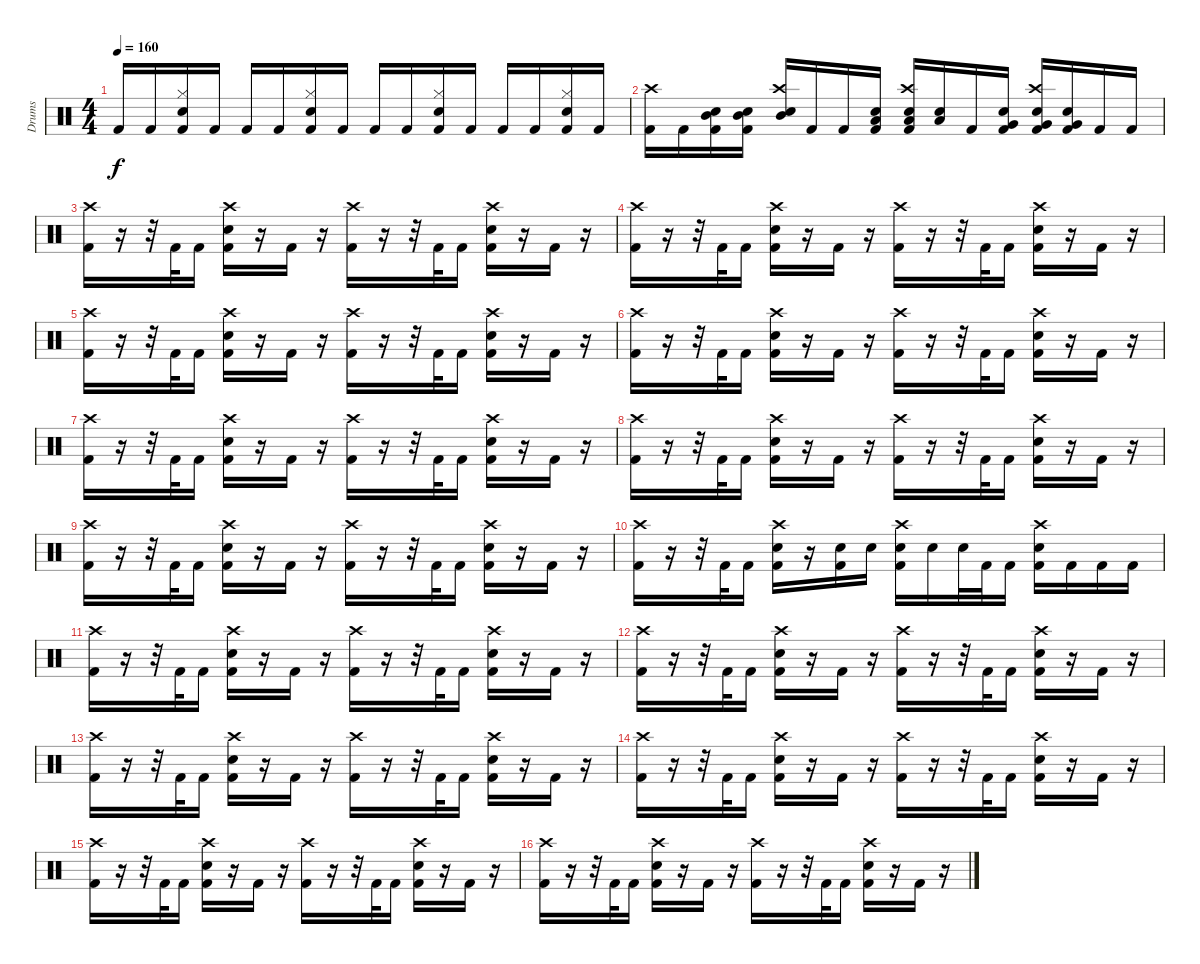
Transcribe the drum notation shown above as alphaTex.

\track ("Drums" "Drums") {instrument percussion}
\staff {score}
\articulation defaults
\ts (4 4)
\tempo 160
\clef neutral
\ks c "Kick (hit) 2".16{dy f} "Kick (hit) 2".16
("Hi-Hat (closed)" "Electric Snare (hit)" "Kick (hit) 2").16 "Kick (hit) 2".16 "Kick (hit) 2".16 "Kick (hit) 2".16 ("Hi-Hat (closed)" "Electric Snare (hit)" "Kick (hit) 2").16 "Kick (hit) 2".16 "Kick (hit) 2".16 "Kick (hit) 2".16 ("Hi-Hat (closed)" "Electric Snare (hit)" "Kick (hit) 2").16 "Kick (hit) 2".16 "Kick (hit) 2".16 "Kick (hit) 2".16 ("Hi-Hat (closed)" "Electric Snare (hit)" "Kick (hit) 2").16 "Kick (hit) 2".16 |
("Crash high (hit)" "Kick (hit) 2").16 "Kick (hit) 2".16 ("Electric Snare (hit)" "Kick (hit) 2" "Mid Tom (hit)").16 ("Electric Snare (hit)" "Kick (hit) 2" "Mid Tom (hit)").16 ("Crash high (hit)" "Electric Snare (hit)" "Mid Tom (hit)").16 "Kick (hit) 2".16 "Kick (hit) 2".16 ("Electric Snare (hit)" "Kick (hit) 2" "Low Tom (hit)").16 ("Crash high (hit)" "Electric Snare (hit)" "Kick (hit) 2" "Low Tom (hit)").16 ("Electric Snare (hit)" "Low Tom (hit)").16 "Kick (hit) 2".16 ("Electric Snare (hit)" "Kick (hit) 2" "Very Low Tom (hit)").16 ("Crash high (hit)" "Electric Snare (hit)" "Kick (hit) 2" "Very Low Tom (hit)").16 ("Electric Snare (hit)" "Kick (hit) 2" "Very Low Tom (hit)").16 "Kick (hit) 2".16 "Kick (hit) 2".16 |
("Crash high (hit)" "Kick (hit) 2").16 r.16 r.32 "Kick (hit) 2".32 "Kick (hit) 2".16 ("Crash high (hit)" "Electric Snare (hit)" "Kick (hit) 2").16 r.16 "Kick (hit) 2".16 r.16 ("Crash high (hit)" "Kick (hit) 2").16 r.16 r.32 "Kick (hit) 2".32 "Kick (hit) 2".16 ("Crash high (hit)" "Electric Snare (hit)" "Kick (hit) 2").16 r.16 "Kick (hit) 2".16 r.16 |
("Crash high (hit)" "Kick (hit) 2").16 r.16 r.32 "Kick (hit) 2".32 "Kick (hit) 2".16 ("Crash high (hit)" "Electric Snare (hit)" "Kick (hit) 2").16 r.16 "Kick (hit) 2".16 r.16 ("Crash high (hit)" "Kick (hit) 2").16 r.16 r.32 "Kick (hit) 2".32 "Kick (hit) 2".16 ("Crash high (hit)" "Electric Snare (hit)" "Kick (hit) 2").16 r.16 "Kick (hit) 2".16 r.16 |
("Crash high (hit)" "Kick (hit) 2").16 r.16 r.32 "Kick (hit) 2".32 "Kick (hit) 2".16 ("Crash high (hit)" "Electric Snare (hit)" "Kick (hit) 2").16 r.16 "Kick (hit) 2".16 r.16 ("Crash high (hit)" "Kick (hit) 2").16 r.16 r.32 "Kick (hit) 2".32 "Kick (hit) 2".16 ("Crash high (hit)" "Electric Snare (hit)" "Kick (hit) 2").16 r.16 "Kick (hit) 2".16 r.16 |
("Crash high (hit)" "Kick (hit) 2").16 r.16 r.32 "Kick (hit) 2".32 "Kick (hit) 2".16 ("Crash high (hit)" "Electric Snare (hit)" "Kick (hit) 2").16 r.16 "Kick (hit) 2".16 r.16 ("Crash high (hit)" "Kick (hit) 2").16 r.16 r.32 "Kick (hit) 2".32 "Kick (hit) 2".16 ("Crash high (hit)" "Electric Snare (hit)" "Kick (hit) 2").16 r.16 "Kick (hit) 2".16 r.16 |
("Crash high (hit)" "Kick (hit) 2").16 r.16 r.32 "Kick (hit) 2".32 "Kick (hit) 2".16 ("Crash high (hit)" "Electric Snare (hit)" "Kick (hit) 2").16 r.16 "Kick (hit) 2".16 r.16 ("Crash high (hit)" "Kick (hit) 2").16 r.16 r.32 "Kick (hit) 2".32 "Kick (hit) 2".16 ("Crash high (hit)" "Electric Snare (hit)" "Kick (hit) 2").16 r.16 "Kick (hit) 2".16 r.16 |
("Crash high (hit)" "Kick (hit) 2").16 r.16 r.32 "Kick (hit) 2".32 "Kick (hit) 2".16 ("Crash high (hit)" "Electric Snare (hit)" "Kick (hit) 2").16 r.16 "Kick (hit) 2".16 r.16 ("Crash high (hit)" "Kick (hit) 2").16 r.16 r.32 "Kick (hit) 2".32 "Kick (hit) 2".16 ("Crash high (hit)" "Electric Snare (hit)" "Kick (hit) 2").16 r.16 "Kick (hit) 2".16 r.16 |
("Crash high (hit)" "Kick (hit) 2").16 r.16 r.32 "Kick (hit) 2".32 "Kick (hit) 2".16 ("Crash high (hit)" "Electric Snare (hit)" "Kick (hit) 2").16 r.16 "Kick (hit) 2".16 r.16 ("Crash high (hit)" "Kick (hit) 2").16 r.16 r.32 "Kick (hit) 2".32 "Kick (hit) 2".16 ("Crash high (hit)" "Electric Snare (hit)" "Kick (hit) 2").16 r.16 "Kick (hit) 2".16 r.16 |
("Crash high (hit)" "Kick (hit) 2").16 r.16 r.32 "Kick (hit) 2".32 "Kick (hit) 2".16 ("Crash high (hit)" "Electric Snare (hit)" "Kick (hit) 2").16 r.16 ("Electric Snare (hit)" "Kick (hit) 2").16 "Electric Snare (hit)".16 ("Crash high (hit)" "Electric Snare (hit)" "Kick (hit) 2").16 "Electric Snare (hit)".16 "Electric Snare (hit)".32 "Kick (hit) 2".32 "Kick (hit) 2".16 ("Crash high (hit)" "Electric Snare (hit)" "Kick (hit) 2").16 "Kick (hit) 2".16 "Kick (hit) 2".16 "Kick (hit) 2".16 |
("Crash high (hit)" "Kick (hit) 2").16 r.16 r.32 "Kick (hit) 2".32 "Kick (hit) 2".16 ("Crash high (hit)" "Electric Snare (hit)" "Kick (hit) 2").16 r.16 "Kick (hit) 2".16 r.16 ("Crash high (hit)" "Kick (hit) 2").16 r.16 r.32 "Kick (hit) 2".32 "Kick (hit) 2".16 ("Crash high (hit)" "Electric Snare (hit)" "Kick (hit) 2").16 r.16 "Kick (hit) 2".16 r.16 |
("Crash high (hit)" "Kick (hit) 2").16 r.16 r.32 "Kick (hit) 2".32 "Kick (hit) 2".16 ("Crash high (hit)" "Electric Snare (hit)" "Kick (hit) 2").16 r.16 "Kick (hit) 2".16 r.16 ("Crash high (hit)" "Kick (hit) 2").16 r.16 r.32 "Kick (hit) 2".32 "Kick (hit) 2".16 ("Crash high (hit)" "Electric Snare (hit)" "Kick (hit) 2").16 r.16 "Kick (hit) 2".16 r.16 |
("Crash high (hit)" "Kick (hit) 2").16 r.16 r.32 "Kick (hit) 2".32 "Kick (hit) 2".16 ("Crash high (hit)" "Electric Snare (hit)" "Kick (hit) 2").16 r.16 "Kick (hit) 2".16 r.16 ("Crash high (hit)" "Kick (hit) 2").16 r.16 r.32 "Kick (hit) 2".32 "Kick (hit) 2".16 ("Crash high (hit)" "Electric Snare (hit)" "Kick (hit) 2").16 r.16 "Kick (hit) 2".16 r.16 |
("Crash high (hit)" "Kick (hit) 2").16 r.16 r.32 "Kick (hit) 2".32 "Kick (hit) 2".16 ("Crash high (hit)" "Electric Snare (hit)" "Kick (hit) 2").16 r.16 "Kick (hit) 2".16 r.16 ("Crash high (hit)" "Kick (hit) 2").16 r.16 r.32 "Kick (hit) 2".32 "Kick (hit) 2".16 ("Crash high (hit)" "Electric Snare (hit)" "Kick (hit) 2").16 r.16 "Kick (hit) 2".16 r.16 |
("Crash high (hit)" "Kick (hit) 2").16 r.16 r.32 "Kick (hit) 2".32 "Kick (hit) 2".16 ("Crash high (hit)" "Electric Snare (hit)" "Kick (hit) 2").16 r.16 "Kick (hit) 2".16 r.16 ("Crash high (hit)" "Kick (hit) 2").16 r.16 r.32 "Kick (hit) 2".32 "Kick (hit) 2".16 ("Crash high (hit)" "Electric Snare (hit)" "Kick (hit) 2").16 r.16 "Kick (hit) 2".16 r.16 |
("Crash high (hit)" "Kick (hit) 2").16 r.16 r.32 "Kick (hit) 2".32 "Kick (hit) 2".16 ("Crash high (hit)" "Electric Snare (hit)" "Kick (hit) 2").16 r.16 "Kick (hit) 2".16 r.16 ("Crash high (hit)" "Kick (hit) 2").16 r.16 r.32 "Kick (hit) 2".32 "Kick (hit) 2".16 ("Crash high (hit)" "Electric Snare (hit)" "Kick (hit) 2").16 r.16 "Kick (hit) 2".16 r.16
